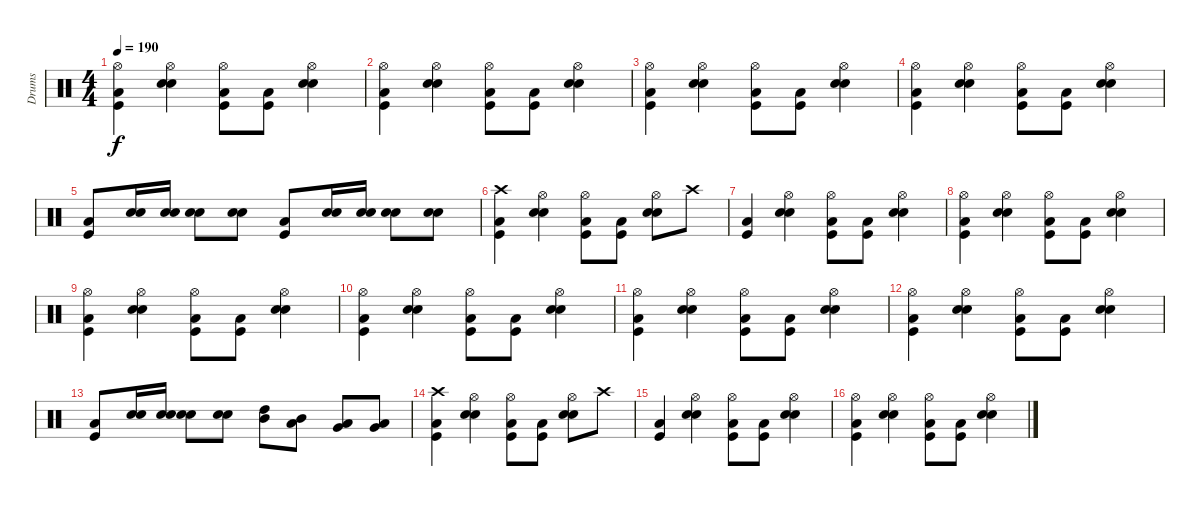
\track ("Drums" "Drums") {instrument percussion}
\staff {score}
\articulation defaults
\ts (4 4)
\tempo 190
\clef neutral
\ks c
("Hi-Hat (open)" "Kick (hit)" "Low Tom (hit)").4{dy f} ("Hi-Hat (open)" "Snare (hit) 2" "Electric Snare (hit)").4 ("Hi-Hat (open)" "Kick (hit)" "Low Tom (hit)").8 ("Kick (hit)" "Low Tom (hit)").8 ("Hi-Hat (open)" "Snare (hit) 2" "Electric Snare (hit)").4 |
("Hi-Hat (open)" "Kick (hit)" "Low Tom (hit)").4 ("Hi-Hat (open)" "Snare (hit) 2" "Electric Snare (hit)").4 ("Hi-Hat (open)" "Kick (hit)" "Low Tom (hit)").8 ("Kick (hit)" "Low Tom (hit)").8 ("Hi-Hat (open)" "Snare (hit) 2" "Electric Snare (hit)").4 |
("Hi-Hat (open)" "Kick (hit)" "Low Tom (hit)").4 ("Hi-Hat (open)" "Snare (hit) 2" "Electric Snare (hit)").4 ("Hi-Hat (open)" "Kick (hit)" "Low Tom (hit)").8 ("Kick (hit)" "Low Tom (hit)").8 ("Hi-Hat (open)" "Snare (hit) 2" "Electric Snare (hit)").4 |
("Hi-Hat (open)" "Kick (hit)" "Low Tom (hit)").4 ("Hi-Hat (open)" "Snare (hit) 2" "Electric Snare (hit)").4 ("Hi-Hat (open)" "Kick (hit)" "Low Tom (hit)").8 ("Kick (hit)" "Low Tom (hit)").8 ("Hi-Hat (open)" "Snare (hit) 2" "Electric Snare (hit)").4 |
("Kick (hit)" "Low Tom (hit)").8 ("Snare (hit) 2" "Electric Snare (hit)").16 ("Snare (hit) 2" "Electric Snare (hit)").16 ("Snare (hit) 2" "Electric Snare (hit)").8 ("Snare (hit) 2" "Electric Snare (hit)").8 ("Kick (hit)" "Low Tom (hit)").8 ("Snare (hit) 2" "Electric Snare (hit)").16 ("Snare (hit) 2" "Electric Snare (hit)").16 ("Snare (hit) 2" "Electric Snare (hit)").8 ("Snare (hit) 2" "Electric Snare (hit)").8 |
("Crash high (hit)" "Kick (hit)" "Low Tom (hit)").4 ("Hi-Hat (open)" "Snare (hit) 2" "Electric Snare (hit)").4 ("Hi-Hat (open)" "Kick (hit)" "Low Tom (hit)").8 ("Kick (hit)" "Low Tom (hit)").8 ("Hi-Hat (open)" "Snare (hit) 2" "Electric Snare (hit)").8 "Crash high (hit)".8 |
("Kick (hit)" "Low Tom (hit)").4 ("Hi-Hat (open)" "Snare (hit) 2" "Electric Snare (hit)").4 ("Hi-Hat (open)" "Kick (hit)" "Low Tom (hit)").8 ("Kick (hit)" "Low Tom (hit)").8 ("Hi-Hat (open)" "Snare (hit) 2" "Electric Snare (hit)").4 |
("Hi-Hat (open)" "Kick (hit)" "Low Tom (hit)").4 ("Hi-Hat (open)" "Snare (hit) 2" "Electric Snare (hit)").4 ("Hi-Hat (open)" "Kick (hit)" "Low Tom (hit)").8 ("Kick (hit)" "Low Tom (hit)").8 ("Hi-Hat (open)" "Snare (hit) 2" "Electric Snare (hit)").4 |
("Hi-Hat (open)" "Kick (hit)" "Low Tom (hit)").4 ("Hi-Hat (open)" "Snare (hit) 2" "Electric Snare (hit)").4 ("Hi-Hat (open)" "Kick (hit)" "Low Tom (hit)").8 ("Kick (hit)" "Low Tom (hit)").8 ("Hi-Hat (open)" "Snare (hit) 2" "Electric Snare (hit)").4 |
("Hi-Hat (open)" "Kick (hit)" "Low Tom (hit)").4 ("Hi-Hat (open)" "Snare (hit) 2" "Electric Snare (hit)").4 ("Hi-Hat (open)" "Kick (hit)" "Low Tom (hit)").8 ("Kick (hit)" "Low Tom (hit)").8 ("Hi-Hat (open)" "Snare (hit) 2" "Electric Snare (hit)").4 |
("Hi-Hat (open)" "Kick (hit)" "Low Tom (hit)").4 ("Hi-Hat (open)" "Snare (hit) 2" "Electric Snare (hit)").4 ("Hi-Hat (open)" "Kick (hit)" "Low Tom (hit)").8 ("Kick (hit)" "Low Tom (hit)").8 ("Hi-Hat (open)" "Snare (hit) 2" "Electric Snare (hit)").4 |
("Hi-Hat (open)" "Kick (hit)" "Low Tom (hit)").4 ("Hi-Hat (open)" "Snare (hit) 2" "Electric Snare (hit)").4 ("Hi-Hat (open)" "Kick (hit)" "Low Tom (hit)").8 ("Kick (hit)" "Low Tom (hit)").8 ("Hi-Hat (open)" "Snare (hit) 2" "Electric Snare (hit)").4 |
("Kick (hit)" "Low Tom (hit)").8 ("Snare (hit) 2" "Electric Snare (hit)").16 ("Snare (hit) 2" "Electric Snare (hit)").16 ("Snare (hit) 2" "Electric Snare (hit)").8 ("Snare (hit) 2" "Electric Snare (hit)").8 ("Mid Tom (hit)" "High Tom (hit)").8 ("Low Tom (hit)" "Mid Tom (hit)").8 ("Very Low Tom (hit)" "Low Tom (hit)").8 ("Low Floor Tom (hit)" "Very Low Tom (hit)").8 |
("Crash high (hit)" "Kick (hit)" "Low Tom (hit)").4 ("Hi-Hat (open)" "Snare (hit) 2" "Electric Snare (hit)").4 ("Hi-Hat (open)" "Kick (hit)" "Low Tom (hit)").8 ("Kick (hit)" "Low Tom (hit)").8 ("Hi-Hat (open)" "Snare (hit) 2" "Electric Snare (hit)").8 "Crash high (hit)".8 |
("Kick (hit)" "Low Tom (hit)").4 ("Hi-Hat (open)" "Snare (hit) 2" "Electric Snare (hit)").4 ("Hi-Hat (open)" "Kick (hit)" "Low Tom (hit)").8 ("Kick (hit)" "Low Tom (hit)").8 ("Hi-Hat (open)" "Snare (hit) 2" "Electric Snare (hit)").4 |
("Hi-Hat (open)" "Kick (hit)" "Low Tom (hit)").4 ("Hi-Hat (open)" "Snare (hit) 2" "Electric Snare (hit)").4 ("Hi-Hat (open)" "Kick (hit)" "Low Tom (hit)").8 ("Kick (hit)" "Low Tom (hit)").8 ("Hi-Hat (open)" "Snare (hit) 2" "Electric Snare (hit)").4
